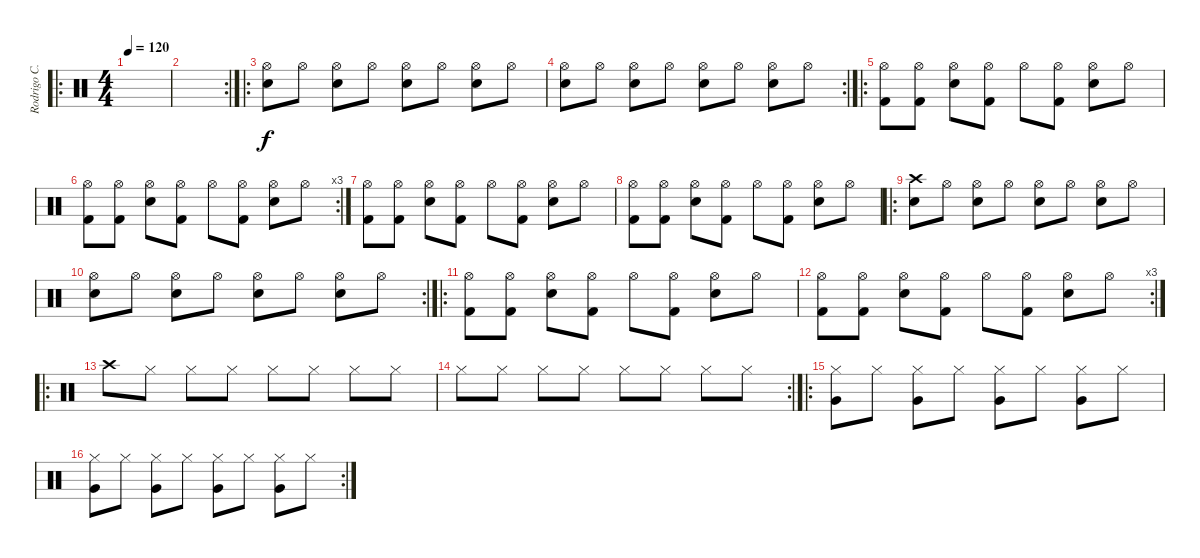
\track ("Rodrigo C. (Bateria)" "Rodrigo C.") {instrument percussion}
\staff {score}
\articulation defaults
\ro
\ts (4 4)
\tempo 120
\clef neutral
\ks c
|
\rc 2
|
\ro
("Hi-Hat (open)" "Electric Snare (hit)").8 "Hi-Hat (open)".8 ("Hi-Hat (open)" "Electric Snare (hit)").8 "Hi-Hat (open)".8 ("Hi-Hat (open)" "Electric Snare (hit)").8 "Hi-Hat (open)".8 ("Hi-Hat (open)" "Electric Snare (hit)").8 "Hi-Hat (open)".8 |
\rc 2
("Hi-Hat (open)" "Electric Snare (hit)").8 "Hi-Hat (open)".8 ("Hi-Hat (open)" "Electric Snare (hit)").8 "Hi-Hat (open)".8 ("Hi-Hat (open)" "Electric Snare (hit)").8 "Hi-Hat (open)".8 ("Hi-Hat (open)" "Electric Snare (hit)").8 "Hi-Hat (open)".8 |
\ro
("Hi-Hat (open)" "Kick (hit) 2").8 ("Hi-Hat (open)" "Kick (hit) 2").8 ("Hi-Hat (open)" "Electric Snare (hit)").8 ("Hi-Hat (open)" "Kick (hit) 2").8 "Hi-Hat (open)".8 ("Hi-Hat (open)" "Kick (hit) 2").8 ("Hi-Hat (open)" "Electric Snare (hit)").8 "Hi-Hat (open)".8 |
\rc 3
("Hi-Hat (open)" "Kick (hit) 2").8 ("Hi-Hat (open)" "Kick (hit) 2").8 ("Hi-Hat (open)" "Electric Snare (hit)").8 ("Hi-Hat (open)" "Kick (hit) 2").8 "Hi-Hat (open)".8 ("Hi-Hat (open)" "Kick (hit) 2").8 ("Hi-Hat (open)" "Electric Snare (hit)").8 "Hi-Hat (open)".8 |
("Hi-Hat (open)" "Kick (hit) 2").8 ("Hi-Hat (open)" "Kick (hit) 2").8 ("Hi-Hat (open)" "Electric Snare (hit)").8 ("Hi-Hat (open)" "Kick (hit) 2").8 "Hi-Hat (open)".8 ("Hi-Hat (open)" "Kick (hit) 2").8 ("Hi-Hat (open)" "Electric Snare (hit)").8 "Hi-Hat (open)".8 |
("Hi-Hat (open)" "Kick (hit) 2").8 ("Hi-Hat (open)" "Kick (hit) 2").8 ("Hi-Hat (open)" "Electric Snare (hit)").8 ("Hi-Hat (open)" "Kick (hit) 2").8 "Hi-Hat (open)".8 ("Hi-Hat (open)" "Kick (hit) 2").8 ("Hi-Hat (open)" "Electric Snare (hit)").8 "Hi-Hat (open)".8 |
\ro
("Crash high (hit)" "Electric Snare (hit)").8 "Hi-Hat (open)".8 ("Hi-Hat (open)" "Electric Snare (hit)").8 "Hi-Hat (open)".8 ("Hi-Hat (open)" "Electric Snare (hit)").8 "Hi-Hat (open)".8 ("Hi-Hat (open)" "Electric Snare (hit)").8 "Hi-Hat (open)".8 |
\rc 2
("Hi-Hat (open)" "Electric Snare (hit)").8 "Hi-Hat (open)".8 ("Hi-Hat (open)" "Electric Snare (hit)").8 "Hi-Hat (open)".8 ("Hi-Hat (open)" "Electric Snare (hit)").8 "Hi-Hat (open)".8 ("Hi-Hat (open)" "Electric Snare (hit)").8 "Hi-Hat (open)".8 |
\ro
("Hi-Hat (open)" "Kick (hit) 2").8 ("Hi-Hat (open)" "Kick (hit) 2").8 ("Hi-Hat (open)" "Electric Snare (hit)").8 ("Hi-Hat (open)" "Kick (hit) 2").8 "Hi-Hat (open)".8 ("Hi-Hat (open)" "Kick (hit) 2").8 ("Hi-Hat (open)" "Electric Snare (hit)").8 "Hi-Hat (open)".8 |
\rc 3
("Hi-Hat (open)" "Kick (hit) 2").8 ("Hi-Hat (open)" "Kick (hit) 2").8 ("Hi-Hat (open)" "Electric Snare (hit)").8 ("Hi-Hat (open)" "Kick (hit) 2").8 "Hi-Hat (open)".8 ("Hi-Hat (open)" "Kick (hit) 2").8 ("Hi-Hat (open)" "Electric Snare (hit)").8 "Hi-Hat (open)".8 |
\ro "Crash high (hit)".8 "Hi-Hat (closed)".8 "Hi-Hat (closed)".8 "Hi-Hat (closed)".8 "Hi-Hat (closed)".8 "Hi-Hat (closed)".8 "Hi-Hat (closed)".8 "Hi-Hat (closed)".8
|
\rc 2 "Hi-Hat (closed)".8 "Hi-Hat (closed)".8 "Hi-Hat (closed)".8 "Hi-Hat (closed)".8 "Hi-Hat (closed)".8 "Hi-Hat (closed)".8 "Hi-Hat (closed)".8 "Hi-Hat (closed)".8
|
\ro
("Hi-Hat (closed)" "Very Low Tom (hit)").8 "Hi-Hat (closed)".8 ("Hi-Hat (closed)" "Very Low Tom (hit)").8 "Hi-Hat (closed)".8 ("Hi-Hat (closed)" "Very Low Tom (hit)").8 "Hi-Hat (closed)".8 ("Hi-Hat (closed)" "Very Low Tom (hit)").8 "Hi-Hat (closed)".8 |
\rc 2
("Hi-Hat (closed)" "Very Low Tom (hit)").8 "Hi-Hat (closed)".8 ("Hi-Hat (closed)" "Very Low Tom (hit)").8 "Hi-Hat (closed)".8 ("Hi-Hat (closed)" "Very Low Tom (hit)").8 "Hi-Hat (closed)".8 ("Hi-Hat (closed)" "Very Low Tom (hit)").8 "Hi-Hat (closed)".8
